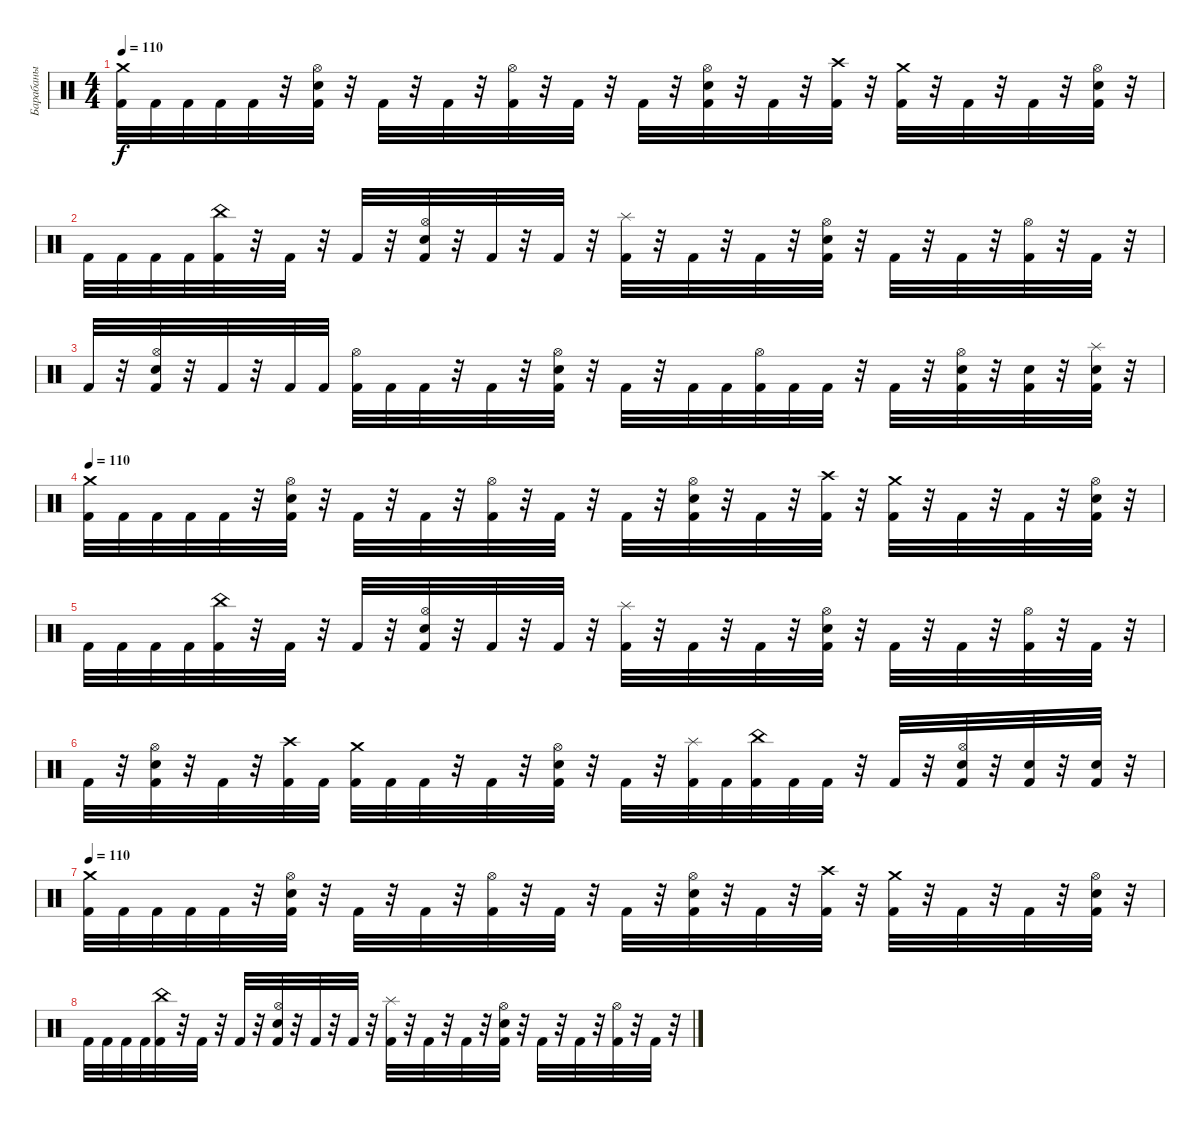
\track ("Барабаны" "Барабаны") {instrument percussion}
\staff {score}
\articulation defaults
\ts (4 4)
\tempo 110
\clef neutral
\ks c
("Crash medium (hit)" "Kick (hit) 2").32{dy f} "Kick (hit) 2".32 "Kick (hit) 2".32 "Kick (hit) 2".32 "Kick (hit) 2".32 r.32 ("Hi-Hat (open)" "Electric Snare (hit)" "Kick (hit) 2").32 r.32 "Kick (hit) 2".32 r.32 "Kick (hit) 2".32 r.32 ("Hi-Hat (open)" "Kick (hit) 2").32 r.32 "Kick (hit) 2".32 r.32 "Kick (hit) 2".32 r.32 ("Hi-Hat (open)" "Electric Snare (hit)" "Kick (hit) 2").32 r.32 "Kick (hit) 2".32 r.32 ("Crash high (hit)" "Kick (hit) 2").32 r.32 ("Crash medium (hit)" "Kick (hit) 2").32 r.32 "Kick (hit) 2".32 r.32 "Kick (hit) 2".32 r.32 ("Hi-Hat (open)" "Electric Snare (hit)" "Kick (hit) 2").32 r.32 |
"Kick (hit) 2".32 "Kick (hit) 2".32 "Kick (hit) 2".32 "Kick (hit) 2".32 ("China (hit)" "Kick (hit) 2").32 r.32 "Kick (hit) 2".32 r.32 "Kick (hit) 2".32 r.32 ("Hi-Hat (open)" "Electric Snare (hit)" "Kick (hit) 2").32 r.32 "Kick (hit) 2".32 r.32 "Kick (hit) 2".32 r.32 ("Splash (hit)" "Kick (hit) 2").32 r.32 "Kick (hit) 2".32 r.32 "Kick (hit) 2".32 r.32 ("Hi-Hat (open)" "Electric Snare (hit)" "Kick (hit) 2").32 r.32 "Kick (hit) 2".32 r.32 "Kick (hit) 2".32 r.32 ("Hi-Hat (open)" "Kick (hit) 2").32 r.32 "Kick (hit) 2".32 r.32 |
"Kick (hit) 2".32 r.32 ("Hi-Hat (open)" "Electric Snare (hit)" "Kick (hit) 2").32 r.32 "Kick (hit) 2".32 r.32 "Kick (hit) 2".32 "Kick (hit) 2".32 ("Hi-Hat (open)" "Kick (hit) 2").32 "Kick (hit) 2".32 "Kick (hit) 2".32 r.32 "Kick (hit) 2".32 r.32 ("Hi-Hat (open)" "Electric Snare (hit)" "Kick (hit) 2").32 r.32 "Kick (hit) 2".32 r.32 "Kick (hit) 2".32 "Kick (hit) 2".32 ("Hi-Hat (open)" "Kick (hit) 2").32 "Kick (hit) 2".32 "Kick (hit) 2".32 r.32 "Kick (hit) 2".32 r.32 ("Hi-Hat (open)" "Electric Snare (hit)" "Kick (hit) 2").32 r.32 ("Electric Snare (hit)" "Kick (hit) 2").32 r.32 ("Splash (hit)" "Electric Snare (hit)" "Kick (hit) 2").32 r.32 |
\tempo 110
("Crash medium (hit)" "Kick (hit) 2").32 "Kick (hit) 2".32 "Kick (hit) 2".32 "Kick (hit) 2".32 "Kick (hit) 2".32 r.32 ("Hi-Hat (open)" "Electric Snare (hit)" "Kick (hit) 2").32 r.32 "Kick (hit) 2".32 r.32 "Kick (hit) 2".32 r.32 ("Hi-Hat (open)" "Kick (hit) 2").32 r.32 "Kick (hit) 2".32 r.32 "Kick (hit) 2".32 r.32 ("Hi-Hat (open)" "Electric Snare (hit)" "Kick (hit) 2").32 r.32 "Kick (hit) 2".32 r.32 ("Crash high (hit)" "Kick (hit) 2").32 r.32 ("Crash medium (hit)" "Kick (hit) 2").32 r.32 "Kick (hit) 2".32 r.32 "Kick (hit) 2".32 r.32 ("Hi-Hat (open)" "Electric Snare (hit)" "Kick (hit) 2").32 r.32 |
"Kick (hit) 2".32 "Kick (hit) 2".32 "Kick (hit) 2".32 "Kick (hit) 2".32 ("China (hit)" "Kick (hit) 2").32 r.32 "Kick (hit) 2".32 r.32 "Kick (hit) 2".32 r.32 ("Hi-Hat (open)" "Electric Snare (hit)" "Kick (hit) 2").32 r.32 "Kick (hit) 2".32 r.32 "Kick (hit) 2".32 r.32 ("Splash (hit)" "Kick (hit) 2").32 r.32 "Kick (hit) 2".32 r.32 "Kick (hit) 2".32 r.32 ("Hi-Hat (open)" "Electric Snare (hit)" "Kick (hit) 2").32 r.32 "Kick (hit) 2".32 r.32 "Kick (hit) 2".32 r.32 ("Hi-Hat (open)" "Kick (hit) 2").32 r.32 "Kick (hit) 2".32 r.32 |
"Kick (hit) 2".32 r.32 ("Hi-Hat (open)" "Electric Snare (hit)" "Kick (hit) 2").32 r.32 "Kick (hit) 2".32 r.32 ("Crash high (hit)" "Kick (hit) 2").32 "Kick (hit) 2".32 ("Crash medium (hit)" "Kick (hit) 2").32 "Kick (hit) 2".32 "Kick (hit) 2".32 r.32 "Kick (hit) 2".32 r.32 ("Hi-Hat (open)" "Electric Snare (hit)" "Kick (hit) 2").32 r.32 "Kick (hit) 2".32 r.32 ("Splash (hit)" "Kick (hit) 2").32 "Kick (hit) 2".32 ("China (hit)" "Kick (hit) 2").32 "Kick (hit) 2".32 "Kick (hit) 2".32 r.32 "Kick (hit) 2".32 r.32 ("Hi-Hat (open)" "Electric Snare (hit)" "Kick (hit) 2").32 r.32 ("Electric Snare (hit)" "Kick (hit) 2").32 r.32 ("Electric Snare (hit)" "Kick (hit) 2").32 r.32 |
\tempo 110
("Crash medium (hit)" "Kick (hit) 2").32 "Kick (hit) 2".32 "Kick (hit) 2".32 "Kick (hit) 2".32 "Kick (hit) 2".32 r.32 ("Hi-Hat (open)" "Electric Snare (hit)" "Kick (hit) 2").32 r.32 "Kick (hit) 2".32 r.32 "Kick (hit) 2".32 r.32 ("Hi-Hat (open)" "Kick (hit) 2").32 r.32 "Kick (hit) 2".32 r.32 "Kick (hit) 2".32 r.32 ("Hi-Hat (open)" "Electric Snare (hit)" "Kick (hit) 2").32 r.32 "Kick (hit) 2".32 r.32 ("Crash high (hit)" "Kick (hit) 2").32 r.32 ("Crash medium (hit)" "Kick (hit) 2").32 r.32 "Kick (hit) 2".32 r.32 "Kick (hit) 2".32 r.32 ("Hi-Hat (open)" "Electric Snare (hit)" "Kick (hit) 2").32 r.32 |
"Kick (hit) 2".32 "Kick (hit) 2".32 "Kick (hit) 2".32 "Kick (hit) 2".32 ("China (hit)" "Kick (hit) 2").32 r.32 "Kick (hit) 2".32 r.32 "Kick (hit) 2".32 r.32 ("Hi-Hat (open)" "Electric Snare (hit)" "Kick (hit) 2").32 r.32 "Kick (hit) 2".32 r.32 "Kick (hit) 2".32 r.32 ("Splash (hit)" "Kick (hit) 2").32 r.32 "Kick (hit) 2".32 r.32 "Kick (hit) 2".32 r.32 ("Hi-Hat (open)" "Electric Snare (hit)" "Kick (hit) 2").32 r.32 "Kick (hit) 2".32 r.32 "Kick (hit) 2".32 r.32 ("Hi-Hat (open)" "Kick (hit) 2").32 r.32 "Kick (hit) 2".32 r.32
